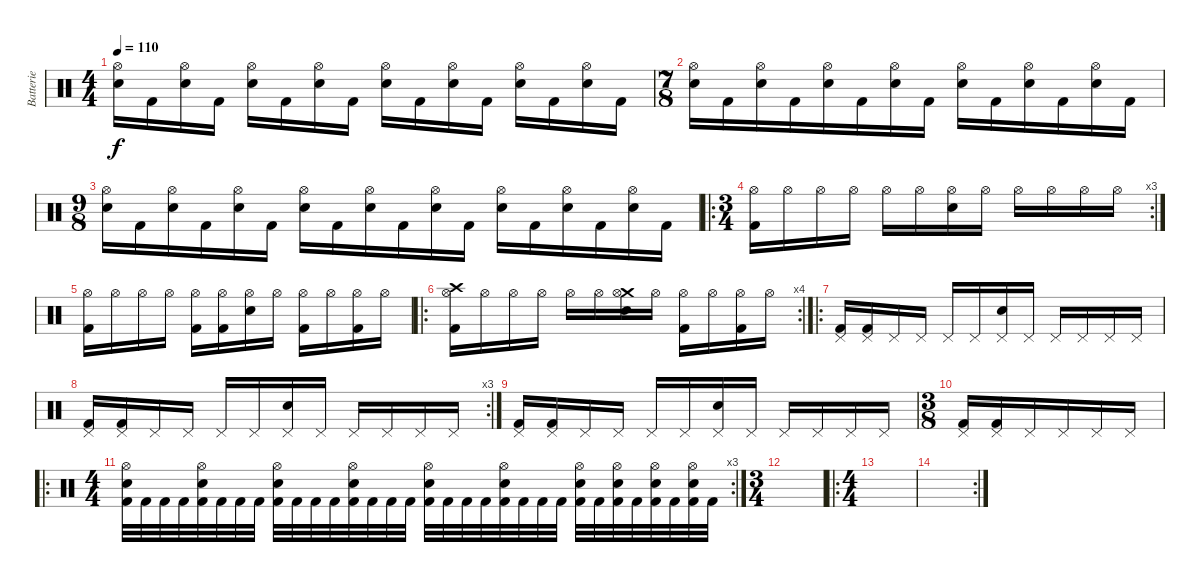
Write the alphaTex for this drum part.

\track ("Batterie" "Batterie") {instrument percussion}
\staff {score}
\articulation defaults
\ts (4 4)
\tempo 110
\clef neutral
\ks c
("Hi-Hat (open)" "Electric Snare (hit)").16{dy f} "Kick (hit) 2".16 ("Hi-Hat (open)" "Electric Snare (hit)").16 "Kick (hit) 2".16 ("Hi-Hat (open)" "Electric Snare (hit)").16 "Kick (hit) 2".16 ("Hi-Hat (open)" "Electric Snare (hit)").16 "Kick (hit) 2".16 ("Hi-Hat (open)" "Electric Snare (hit)").16 "Kick (hit) 2".16 ("Hi-Hat (open)" "Electric Snare (hit)").16 "Kick (hit) 2".16 ("Hi-Hat (open)" "Electric Snare (hit)").16 "Kick (hit) 2".16 ("Hi-Hat (open)" "Electric Snare (hit)").16 "Kick (hit) 2".16 |
\ts (7 8)
("Hi-Hat (open)" "Electric Snare (hit)").16 "Kick (hit) 2".16 ("Hi-Hat (open)" "Electric Snare (hit)").16 "Kick (hit) 2".16 ("Hi-Hat (open)" "Electric Snare (hit)").16 "Kick (hit) 2".16 ("Hi-Hat (open)" "Electric Snare (hit)").16 "Kick (hit) 2".16 ("Hi-Hat (open)" "Electric Snare (hit)").16 "Kick (hit) 2".16 ("Hi-Hat (open)" "Electric Snare (hit)").16 "Kick (hit) 2".16 ("Hi-Hat (open)" "Electric Snare (hit)").16 "Kick (hit) 2".16 |
\ts (9 8)
("Hi-Hat (open)" "Electric Snare (hit)").16 "Kick (hit) 2".16 ("Hi-Hat (open)" "Electric Snare (hit)").16 "Kick (hit) 2".16 ("Hi-Hat (open)" "Electric Snare (hit)").16 "Kick (hit) 2".16 ("Hi-Hat (open)" "Electric Snare (hit)").16 "Kick (hit) 2".16 ("Hi-Hat (open)" "Electric Snare (hit)").16 "Kick (hit) 2".16 ("Hi-Hat (open)" "Electric Snare (hit)").16 "Kick (hit) 2".16 ("Hi-Hat (open)" "Electric Snare (hit)").16 "Kick (hit) 2".16 ("Hi-Hat (open)" "Electric Snare (hit)").16 "Kick (hit) 2".16 ("Hi-Hat (open)" "Electric Snare (hit)").16 "Kick (hit) 2".16 |
\ro
\rc 3
\ts (3 4)
("Hi-Hat (open)" "Kick (hit) 2").16 "Hi-Hat (open)".16 "Hi-Hat (open)".16 "Hi-Hat (open)".16 "Hi-Hat (open)".16 "Hi-Hat (open)".16 ("Hi-Hat (open)" "Electric Snare (hit)").16 "Hi-Hat (open)".16 "Hi-Hat (open)".16 "Hi-Hat (open)".16 "Hi-Hat (open)".16 "Hi-Hat (open)".16 |
("Hi-Hat (open)" "Kick (hit) 2").16 "Hi-Hat (open)".16 "Hi-Hat (open)".16 "Hi-Hat (open)".16 ("Hi-Hat (open)" "Kick (hit) 2").16 ("Hi-Hat (open)" "Kick (hit) 2").16 ("Hi-Hat (open)" "Electric Snare (hit)").16 "Hi-Hat (open)".16 ("Hi-Hat (open)" "Kick (hit) 2").16 "Hi-Hat (open)".16 ("Hi-Hat (open)" "Kick (hit) 2").16 "Hi-Hat (open)".16 |
\ro
\rc 4
("Crash high (hit)" "Hi-Hat (open)" "Kick (hit) 2").16 "Hi-Hat (open)".16 "Hi-Hat (open)".16 "Hi-Hat (open)".16 "Hi-Hat (open)".16 "Hi-Hat (open)".16 ("Crash medium (hit)" "Hi-Hat (open)" "Electric Snare (hit)").16 "Hi-Hat (open)".16 ("Hi-Hat (open)" "Kick (hit) 2").16 "Hi-Hat (open)".16 ("Hi-Hat (open)" "Kick (hit) 2").16 "Hi-Hat (open)".16 |
\ro
("Pedal Hi-Hat (hit)" "Kick (hit) 2").16 ("Pedal Hi-Hat (hit)" "Kick (hit) 2").16 "Pedal Hi-Hat (hit)".16 "Pedal Hi-Hat (hit)".16 "Pedal Hi-Hat (hit)".16 "Pedal Hi-Hat (hit)".16 ("Pedal Hi-Hat (hit)" "Electric Snare (hit)").16 "Pedal Hi-Hat (hit)".16 "Pedal Hi-Hat (hit)".16 "Pedal Hi-Hat (hit)".16 "Pedal Hi-Hat (hit)".16 "Pedal Hi-Hat (hit)".16 |
\rc 3
("Pedal Hi-Hat (hit)" "Kick (hit) 2").16 ("Pedal Hi-Hat (hit)" "Kick (hit) 2").16 "Pedal Hi-Hat (hit)".16 "Pedal Hi-Hat (hit)".16 "Pedal Hi-Hat (hit)".16 "Pedal Hi-Hat (hit)".16 ("Pedal Hi-Hat (hit)" "Electric Snare (hit)").16 "Pedal Hi-Hat (hit)".16 "Pedal Hi-Hat (hit)".16 "Pedal Hi-Hat (hit)".16 "Pedal Hi-Hat (hit)".16 "Pedal Hi-Hat (hit)".16 |
("Pedal Hi-Hat (hit)" "Kick (hit) 2").16 ("Pedal Hi-Hat (hit)" "Kick (hit) 2").16 "Pedal Hi-Hat (hit)".16 "Pedal Hi-Hat (hit)".16 "Pedal Hi-Hat (hit)".16 "Pedal Hi-Hat (hit)".16 ("Pedal Hi-Hat (hit)" "Electric Snare (hit)").16 "Pedal Hi-Hat (hit)".16 "Pedal Hi-Hat (hit)".16 "Pedal Hi-Hat (hit)".16 "Pedal Hi-Hat (hit)".16 "Pedal Hi-Hat (hit)".16 |
\ts (3 8)
("Pedal Hi-Hat (hit)" "Kick (hit) 2").16 ("Pedal Hi-Hat (hit)" "Kick (hit) 2").16 "Pedal Hi-Hat (hit)".16 "Pedal Hi-Hat (hit)".16 "Pedal Hi-Hat (hit)".16 "Pedal Hi-Hat (hit)".16 |
\ro
\rc 3
\ts (4 4)
("Hi-Hat (open)" "Electric Snare (hit)" "Kick (hit) 2").32 "Kick (hit) 2".32 "Kick (hit) 2".32 "Kick (hit) 2".32 ("Hi-Hat (open)" "Electric Snare (hit)" "Kick (hit) 2").32 "Kick (hit) 2".32 "Kick (hit) 2".32 "Kick (hit) 2".32 ("Hi-Hat (open)" "Electric Snare (hit)" "Kick (hit) 2").32 "Kick (hit) 2".32 "Kick (hit) 2".32 "Kick (hit) 2".32 ("Hi-Hat (open)" "Electric Snare (hit)" "Kick (hit) 2").32 "Kick (hit) 2".32 "Kick (hit) 2".32 "Kick (hit) 2".32 ("Hi-Hat (open)" "Electric Snare (hit)" "Kick (hit) 2").32 "Kick (hit) 2".32 "Kick (hit) 2".32 "Kick (hit) 2".32 ("Hi-Hat (open)" "Electric Snare (hit)" "Kick (hit) 2").32 "Kick (hit) 2".32 "Kick (hit) 2".32 "Kick (hit) 2".32 ("Hi-Hat (open)" "Electric Snare (hit)" "Kick (hit) 2").32 "Kick (hit) 2".32 ("Hi-Hat (open)" "Electric Snare (hit)" "Kick (hit) 2").32 "Kick (hit) 2".32 ("Hi-Hat (open)" "Electric Snare (hit)" "Kick (hit) 2").32 "Kick (hit) 2".32 ("Hi-Hat (open)" "Electric Snare (hit)" "Kick (hit) 2").32 "Kick (hit) 2".32 |
\ts (3 4)
|
\ro
\ts (4 4)
|
\rc 2
